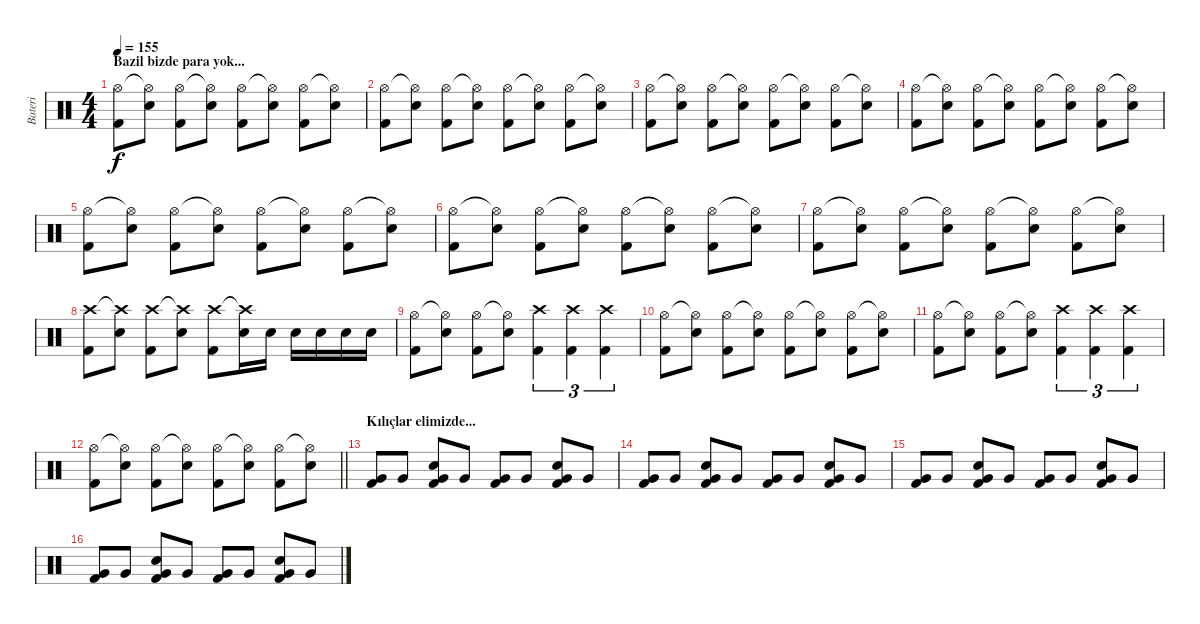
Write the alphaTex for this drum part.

\track ("Bateri" "Bateri") {instrument percussion}
\staff {score}
\articulation defaults
\ts (4 4)
\section ("" "Bazil bizde para yok...")
\tempo 155
\clef neutral
\ks c
("Hi-Hat (open)" "Kick (hit) 2").8{dy f} ("Hi-Hat (open)"{t} "Snare (hit) 2").8 ("Hi-Hat (open)" "Kick (hit) 2").8 ("Hi-Hat (open)"{t} "Snare (hit) 2").8 ("Hi-Hat (open)" "Kick (hit) 2").8 ("Hi-Hat (open)"{t} "Snare (hit) 2").8 ("Hi-Hat (open)" "Kick (hit) 2").8 ("Hi-Hat (open)"{t} "Snare (hit) 2").8 |
("Hi-Hat (open)" "Kick (hit) 2").8 ("Hi-Hat (open)"{t} "Snare (hit) 2").8 ("Hi-Hat (open)" "Kick (hit) 2").8 ("Hi-Hat (open)"{t} "Snare (hit) 2").8 ("Hi-Hat (open)" "Kick (hit) 2").8 ("Hi-Hat (open)"{t} "Snare (hit) 2").8 ("Hi-Hat (open)" "Kick (hit) 2").8 ("Hi-Hat (open)"{t} "Snare (hit) 2").8 |
("Hi-Hat (open)" "Kick (hit) 2").8 ("Hi-Hat (open)"{t} "Snare (hit) 2").8 ("Hi-Hat (open)" "Kick (hit) 2").8 ("Hi-Hat (open)"{t} "Snare (hit) 2").8 ("Hi-Hat (open)" "Kick (hit) 2").8 ("Hi-Hat (open)"{t} "Snare (hit) 2").8 ("Hi-Hat (open)" "Kick (hit) 2").8 ("Hi-Hat (open)"{t} "Snare (hit) 2").8 |
("Hi-Hat (open)" "Kick (hit) 2").8 ("Hi-Hat (open)"{t} "Snare (hit) 2").8 ("Hi-Hat (open)" "Kick (hit) 2").8 ("Hi-Hat (open)"{t} "Snare (hit) 2").8 ("Hi-Hat (open)" "Kick (hit) 2").8 ("Hi-Hat (open)"{t} "Snare (hit) 2").8 ("Hi-Hat (open)" "Kick (hit) 2").8 ("Hi-Hat (open)"{t} "Snare (hit) 2").8 |
("Hi-Hat (open)" "Kick (hit) 2").8 ("Hi-Hat (open)"{t} "Snare (hit) 2").8 ("Hi-Hat (open)" "Kick (hit) 2").8 ("Hi-Hat (open)"{t} "Snare (hit) 2").8 ("Hi-Hat (open)" "Kick (hit) 2").8 ("Hi-Hat (open)"{t} "Snare (hit) 2").8 ("Hi-Hat (open)" "Kick (hit) 2").8 ("Hi-Hat (open)"{t} "Snare (hit) 2").8 |
("Hi-Hat (open)" "Kick (hit) 2").8 ("Hi-Hat (open)"{t} "Snare (hit) 2").8 ("Hi-Hat (open)" "Kick (hit) 2").8 ("Hi-Hat (open)"{t} "Snare (hit) 2").8 ("Hi-Hat (open)" "Kick (hit) 2").8 ("Hi-Hat (open)"{t} "Snare (hit) 2").8 ("Hi-Hat (open)" "Kick (hit) 2").8 ("Hi-Hat (open)"{t} "Snare (hit) 2").8 |
("Hi-Hat (open)" "Kick (hit) 2").8 ("Hi-Hat (open)"{t} "Snare (hit) 2").8 ("Hi-Hat (open)" "Kick (hit) 2").8 ("Hi-Hat (open)"{t} "Snare (hit) 2").8 ("Hi-Hat (open)" "Kick (hit) 2").8 ("Hi-Hat (open)"{t} "Snare (hit) 2").8 ("Hi-Hat (open)" "Kick (hit) 2").8 ("Hi-Hat (open)"{t} "Snare (hit) 2").8 |
("Crash high (hit)" "Kick (hit) 2").8 ("Crash high (hit)"{t} "Snare (hit) 2").8 ("Crash high (hit)" "Kick (hit) 2").8 ("Crash high (hit)"{t} "Snare (hit) 2").8 ("Crash high (hit)" "Kick (hit) 2").8 ("Crash high (hit)"{t} "Snare (hit) 2").16 "Snare (hit) 2".16 "Snare (hit) 2".16 "Snare (hit) 2".16 "Snare (hit) 2".16 "Snare (hit) 2".16 |
("Hi-Hat (open)" "Kick (hit) 2").8 ("Hi-Hat (open)"{t} "Snare (hit) 2").8 ("Hi-Hat (open)" "Kick (hit) 2").8 ("Hi-Hat (open)"{t} "Snare (hit) 2").8 ("Crash high (hit)" "Kick (hit) 2").4{tu (3 2)} ("Crash high (hit)" "Kick (hit) 2").4{tu (3 2)} ("Crash high (hit)" "Kick (hit) 2").4{tu (3 2)} |
("Hi-Hat (open)" "Kick (hit) 2").8 ("Hi-Hat (open)"{t} "Snare (hit) 2").8 ("Hi-Hat (open)" "Kick (hit) 2").8 ("Hi-Hat (open)"{t} "Snare (hit) 2").8 ("Hi-Hat (open)" "Kick (hit) 2").8 ("Hi-Hat (open)"{t} "Snare (hit) 2").8 ("Hi-Hat (open)" "Kick (hit) 2").8 ("Hi-Hat (open)"{t} "Snare (hit) 2").8 |
("Hi-Hat (open)" "Kick (hit) 2").8 ("Hi-Hat (open)"{t} "Snare (hit) 2").8 ("Hi-Hat (open)" "Kick (hit) 2").8 ("Hi-Hat (open)"{t} "Snare (hit) 2").8 ("Crash high (hit)" "Kick (hit) 2").4{tu (3 2)} ("Crash high (hit)" "Kick (hit) 2").4{tu (3 2)} ("Crash high (hit)" "Kick (hit) 2").4{tu (3 2)} |
\barLineRight lightlight
("Hi-Hat (open)" "Kick (hit) 2").8 ("Hi-Hat (open)"{t} "Snare (hit) 2").8 ("Hi-Hat (open)" "Kick (hit) 2").8 ("Hi-Hat (open)"{t} "Snare (hit) 2").8 ("Hi-Hat (open)" "Kick (hit) 2").8 ("Hi-Hat (open)"{t} "Snare (hit) 2").8 ("Hi-Hat (open)" "Kick (hit) 2").8 ("Hi-Hat (open)"{t} "Snare (hit) 2").8 |
\section ("" "Kılıçlar elimizde...")
("Very Low Tom (hit)" "Kick (hit) 2").8 "Very Low Tom (hit)".8 ("Very Low Tom (hit)" "Snare (hit) 2" "Kick (hit) 2").8 "Very Low Tom (hit)".8 ("Very Low Tom (hit)" "Kick (hit) 2").8 "Very Low Tom (hit)".8 ("Very Low Tom (hit)" "Snare (hit) 2" "Kick (hit) 2").8 "Very Low Tom (hit)".8 |
("Very Low Tom (hit)" "Kick (hit) 2").8 "Very Low Tom (hit)".8 ("Very Low Tom (hit)" "Snare (hit) 2" "Kick (hit) 2").8 "Very Low Tom (hit)".8 ("Very Low Tom (hit)" "Kick (hit) 2").8 "Very Low Tom (hit)".8 ("Very Low Tom (hit)" "Snare (hit) 2" "Kick (hit) 2").8 "Very Low Tom (hit)".8 |
("Very Low Tom (hit)" "Kick (hit) 2").8 "Very Low Tom (hit)".8 ("Very Low Tom (hit)" "Snare (hit) 2" "Kick (hit) 2").8 "Very Low Tom (hit)".8 ("Very Low Tom (hit)" "Kick (hit) 2").8 "Very Low Tom (hit)".8 ("Very Low Tom (hit)" "Snare (hit) 2" "Kick (hit) 2").8 "Very Low Tom (hit)".8 |
("Very Low Tom (hit)" "Kick (hit) 2").8 "Very Low Tom (hit)".8 ("Very Low Tom (hit)" "Snare (hit) 2" "Kick (hit) 2").8 "Very Low Tom (hit)".8 ("Very Low Tom (hit)" "Kick (hit) 2").8 "Very Low Tom (hit)".8 ("Very Low Tom (hit)" "Snare (hit) 2" "Kick (hit) 2").8 "Very Low Tom (hit)".8
